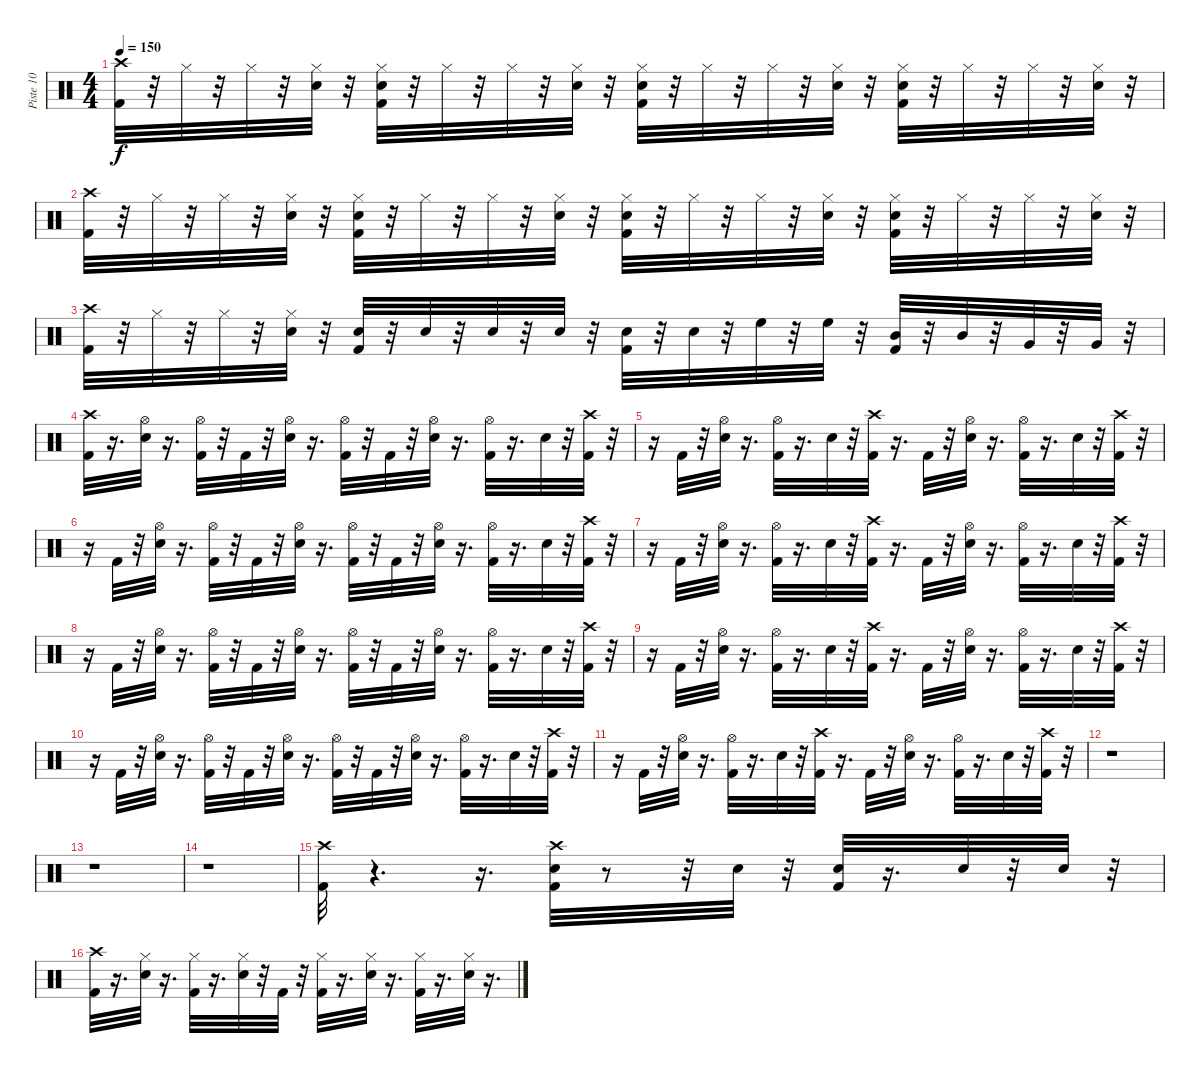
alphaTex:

\track ("Piste 10" "Piste 10") {instrument percussion}
\staff {score}
\articulation defaults
\ts (4 4)
\tempo 150
\clef neutral
\ks c
("Crash high (hit)" "Kick (hit) 2").32{dy f} r.32 "Hi-Hat (closed)".32 r.32 "Hi-Hat (closed)".32 r.32 ("Hi-Hat (closed)" "Snare (hit) 2").32 r.32 ("Hi-Hat (closed)" "Snare (hit) 2" "Kick (hit) 2").32 r.32 "Hi-Hat (closed)".32 r.32 "Hi-Hat (closed)".32 r.32 ("Hi-Hat (closed)" "Snare (hit) 2").32 r.32 ("Hi-Hat (closed)" "Snare (hit) 2" "Kick (hit) 2").32 r.32 "Hi-Hat (closed)".32 r.32 "Hi-Hat (closed)".32 r.32 ("Hi-Hat (closed)" "Snare (hit) 2").32 r.32 ("Hi-Hat (closed)" "Snare (hit) 2" "Kick (hit) 2").32 r.32 "Hi-Hat (closed)".32 r.32 "Hi-Hat (closed)".32 r.32 ("Hi-Hat (closed)" "Snare (hit) 2").32 r.32 |
("Crash high (hit)" "Kick (hit) 2").32 r.32 "Hi-Hat (closed)".32 r.32 "Hi-Hat (closed)".32 r.32 ("Hi-Hat (closed)" "Snare (hit) 2").32 r.32 ("Hi-Hat (closed)" "Snare (hit) 2" "Kick (hit) 2").32 r.32 "Hi-Hat (closed)".32 r.32 "Hi-Hat (closed)".32 r.32 ("Hi-Hat (closed)" "Snare (hit) 2").32 r.32 ("Hi-Hat (closed)" "Snare (hit) 2" "Kick (hit) 2").32 r.32 "Hi-Hat (closed)".32 r.32 "Hi-Hat (closed)".32 r.32 ("Hi-Hat (closed)" "Snare (hit) 2").32 r.32 ("Hi-Hat (closed)" "Snare (hit) 2" "Kick (hit) 2").32 r.32 "Hi-Hat (closed)".32 r.32 "Hi-Hat (closed)".32 r.32 ("Hi-Hat (closed)" "Snare (hit) 2").32 r.32 |
("Crash high (hit)" "Kick (hit) 2").32 r.32 "Hi-Hat (closed)".32 r.32 "Hi-Hat (closed)".32 r.32 ("Hi-Hat (closed)" "Snare (hit) 2").32 r.32 ("Snare (hit) 2" "Kick (hit) 2").32 r.32 "Snare (hit) 2".32 r.32 "Snare (hit) 2".32 r.32 "Snare (hit) 2".32 r.32 ("Snare (hit) 2" "Kick (hit) 2").32 r.32 "Snare (hit) 2".32 r.32 "High Floor Tom (hit)".32 r.32 "High Floor Tom (hit)".32 r.32 ("Mid Tom (hit)" "Kick (hit) 2").32 r.32 "Mid Tom (hit)".32 r.32 "Very Low Tom (hit)".32 r.32 "Very Low Tom (hit)".32 r.32 |
("Crash high (hit)" "Kick (hit) 2").32 r.16{d} ("Hi-Hat (open)" "Snare (hit) 2").32 r.16{d} ("Hi-Hat (open)" "Kick (hit) 2").32 r.32 "Kick (hit) 2".32 r.32 ("Hi-Hat (open)" "Snare (hit) 2").32 r.16{d} ("Hi-Hat (open)" "Kick (hit) 2").32 r.32 "Kick (hit) 2".32 r.32 ("Hi-Hat (open)" "Snare (hit) 2").32 r.16{d} ("Hi-Hat (open)" "Kick (hit) 2").32 r.16{d} "Snare (hit) 2".32 r.32 ("Crash high (hit)" "Kick (hit) 2").32 r.32 |
r.16 "Kick (hit) 2".32 r.32 ("Hi-Hat (open)" "Snare (hit) 2").32 r.16{d} ("Hi-Hat (open)" "Kick (hit) 2").32 r.16{d} "Snare (hit) 2".32 r.32 ("Kick (hit) 2" "Crash high (hit)").32 r.16{d} "Kick (hit) 2".32 r.32 ("Hi-Hat (open)" "Snare (hit) 2").32 r.16{d} ("Hi-Hat (open)" "Kick (hit) 2").32 r.16{d} "Snare (hit) 2".32 r.32 ("Kick (hit) 2" "Crash high (hit)").32 r.32 |
r.16 "Kick (hit) 2".32 r.32 ("Hi-Hat (open)" "Snare (hit) 2").32 r.16{d} ("Hi-Hat (open)" "Kick (hit) 2").32 r.32 "Kick (hit) 2".32 r.32 ("Hi-Hat (open)" "Snare (hit) 2").32 r.16{d} ("Hi-Hat (open)" "Kick (hit) 2").32 r.32 "Kick (hit) 2".32 r.32 ("Hi-Hat (open)" "Snare (hit) 2").32 r.16{d} ("Hi-Hat (open)" "Kick (hit) 2").32 r.16{d} "Snare (hit) 2".32 r.32 ("Crash high (hit)" "Kick (hit) 2").32 r.32 |
r.16 "Kick (hit) 2".32 r.32 ("Hi-Hat (open)" "Snare (hit) 2").32 r.16{d} ("Hi-Hat (open)" "Kick (hit) 2").32 r.16{d} "Snare (hit) 2".32 r.32 ("Kick (hit) 2" "Crash high (hit)").32 r.16{d} "Kick (hit) 2".32 r.32 ("Hi-Hat (open)" "Snare (hit) 2").32 r.16{d} ("Hi-Hat (open)" "Kick (hit) 2").32 r.16{d} "Snare (hit) 2".32 r.32 ("Kick (hit) 2" "Crash high (hit)").32 r.32 |
r.16 "Kick (hit) 2".32 r.32 ("Hi-Hat (open)" "Snare (hit) 2").32 r.16{d} ("Hi-Hat (open)" "Kick (hit) 2").32 r.32 "Kick (hit) 2".32 r.32 ("Hi-Hat (open)" "Snare (hit) 2").32 r.16{d} ("Hi-Hat (open)" "Kick (hit) 2").32 r.32 "Kick (hit) 2".32 r.32 ("Hi-Hat (open)" "Snare (hit) 2").32 r.16{d} ("Hi-Hat (open)" "Kick (hit) 2").32 r.16{d} "Snare (hit) 2".32 r.32 ("Crash high (hit)" "Kick (hit) 2").32 r.32 |
r.16 "Kick (hit) 2".32 r.32 ("Hi-Hat (open)" "Snare (hit) 2").32 r.16{d} ("Hi-Hat (open)" "Kick (hit) 2").32 r.16{d} "Snare (hit) 2".32 r.32 ("Kick (hit) 2" "Crash high (hit)").32 r.16{d} "Kick (hit) 2".32 r.32 ("Hi-Hat (open)" "Snare (hit) 2").32 r.16{d} ("Hi-Hat (open)" "Kick (hit) 2").32 r.16{d} "Snare (hit) 2".32 r.32 ("Kick (hit) 2" "Crash high (hit)").32 r.32 |
r.16 "Kick (hit) 2".32 r.32 ("Hi-Hat (open)" "Snare (hit) 2").32 r.16{d} ("Hi-Hat (open)" "Kick (hit) 2").32 r.32 "Kick (hit) 2".32 r.32 ("Hi-Hat (open)" "Snare (hit) 2").32 r.16{d} ("Hi-Hat (open)" "Kick (hit) 2").32 r.32 "Kick (hit) 2".32 r.32 ("Hi-Hat (open)" "Snare (hit) 2").32 r.16{d} ("Hi-Hat (open)" "Kick (hit) 2").32 r.16{d} "Snare (hit) 2".32 r.32 ("Crash high (hit)" "Kick (hit) 2").32 r.32 |
r.16 "Kick (hit) 2".32 r.32 ("Hi-Hat (open)" "Snare (hit) 2").32 r.16{d} ("Hi-Hat (open)" "Kick (hit) 2").32 r.16{d} "Snare (hit) 2".32 r.32 ("Kick (hit) 2" "Crash high (hit)").32 r.16{d} "Kick (hit) 2".32 r.32 ("Hi-Hat (open)" "Snare (hit) 2").32 r.16{d} ("Hi-Hat (open)" "Kick (hit) 2").32 r.16{d} "Snare (hit) 2".32 r.32 ("Kick (hit) 2" "Crash high (hit)").32 r.32 |
r.1 |
r.1 |
r.1 |
("Crash high (hit)" "Kick (hit) 2").32 r.4{d} r.16{d} ("Kick (hit) 2" "Snare (hit) 2" "Crash high (hit)").32 r.8 r.32 "Snare (hit) 2".32 r.32 ("Kick (hit) 2" "Snare (hit) 2").32 r.16{d} "Snare (hit) 2".32 r.32 "Snare (hit) 2".32 r.32 |
("Crash high (hit)" "Kick (hit) 2").32 r.16{d} ("Hi-Hat (closed)" "Snare (hit) 2").32 r.16{d} ("Hi-Hat (closed)" "Kick (hit) 2").32 r.16{d} ("Hi-Hat (closed)" "Snare (hit) 2").32 r.32 "Kick (hit) 2".32 r.32 ("Hi-Hat (closed)" "Kick (hit) 2").32 r.16{d} ("Hi-Hat (closed)" "Snare (hit) 2").32 r.16{d} ("Hi-Hat (closed)" "Kick (hit) 2").32 r.16{d} ("Hi-Hat (closed)" "Snare (hit) 2").32 r.16{d}
